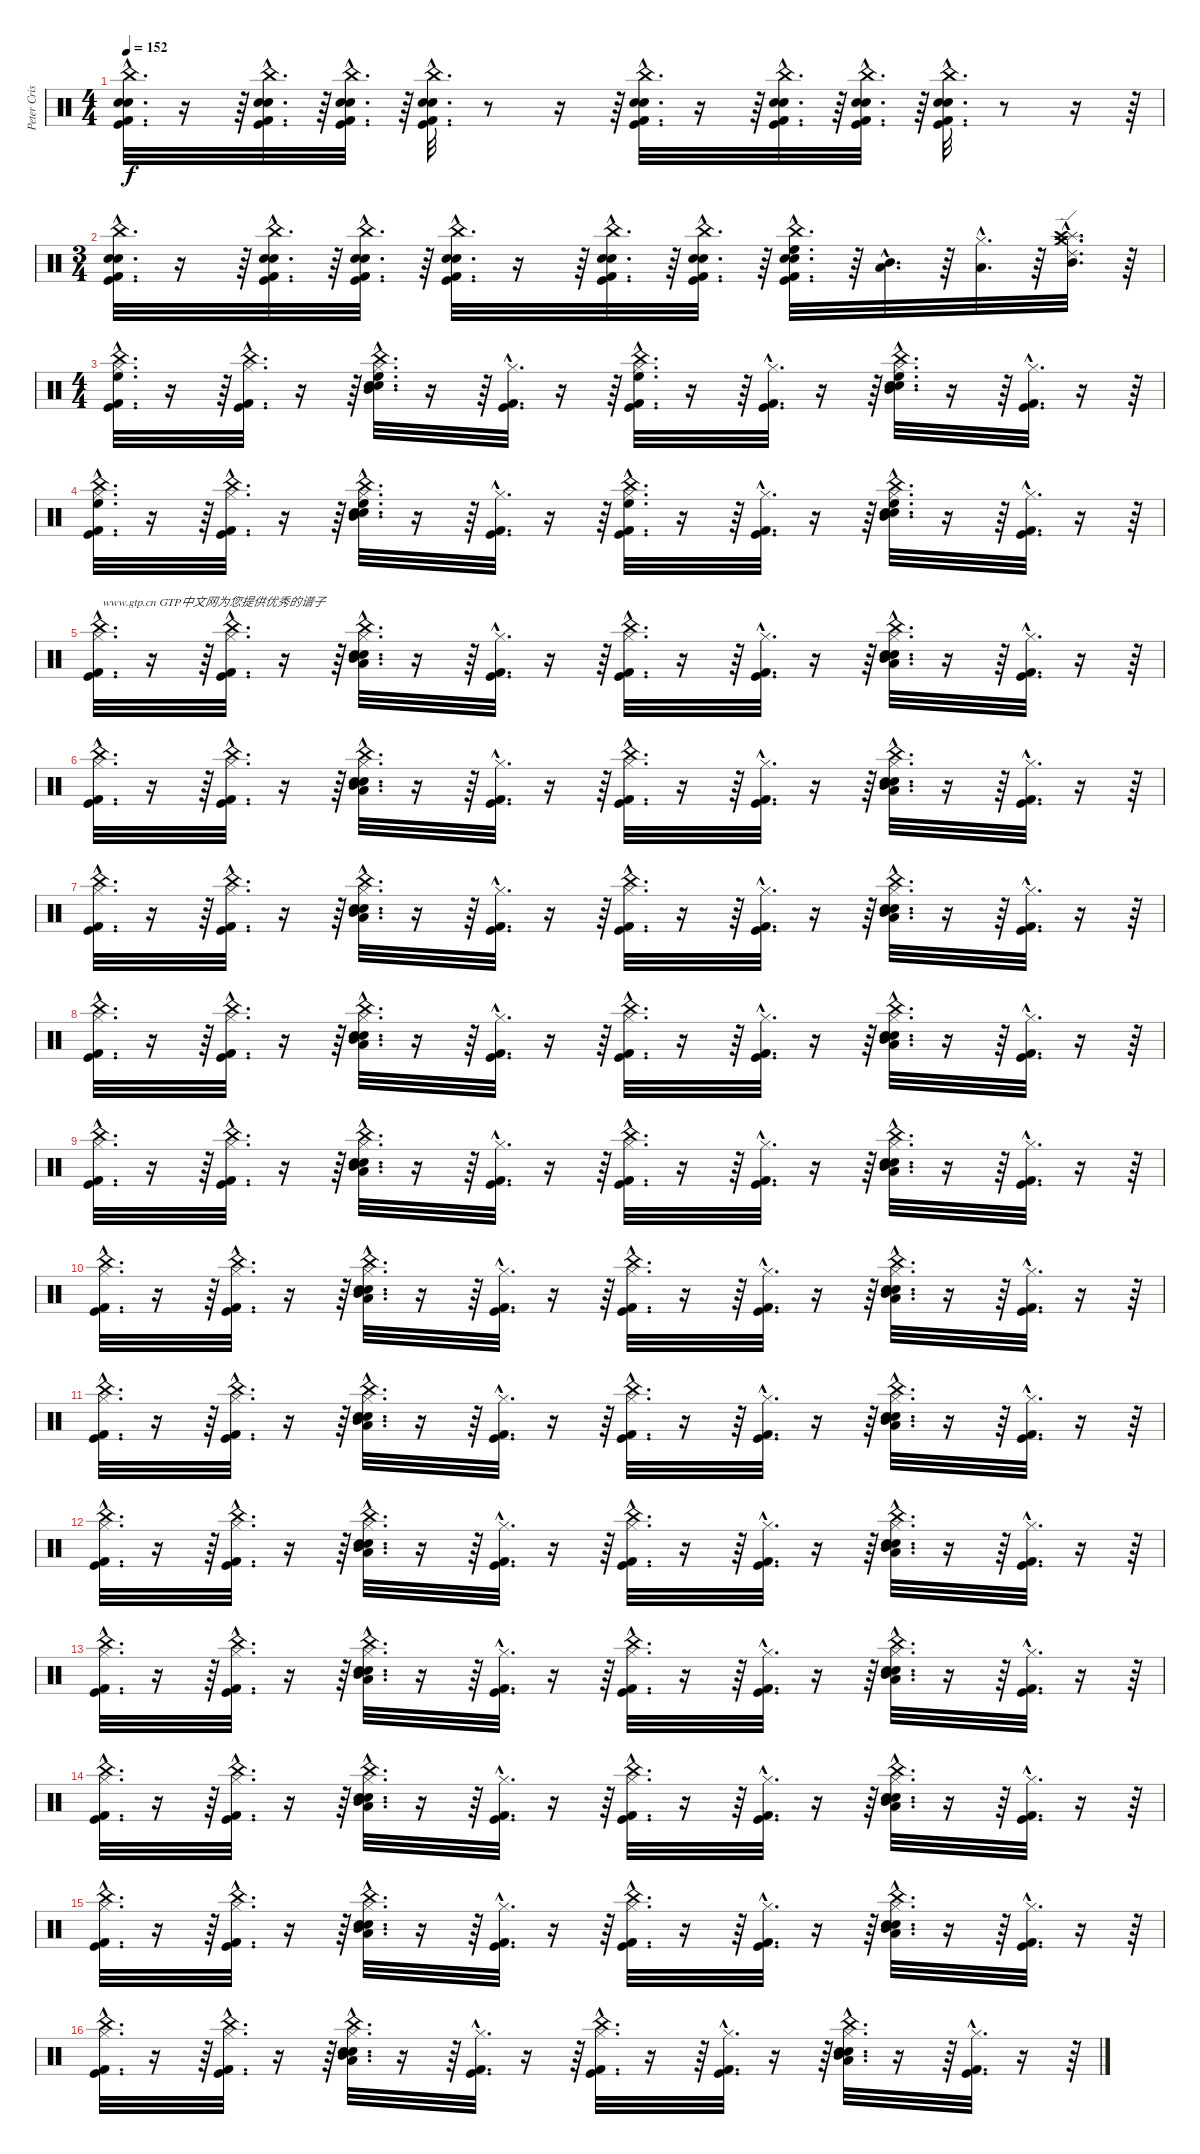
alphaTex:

\track ("Peter Criss" "Peter Cris") {instrument percussion}
\staff {score}
\articulation defaults
\ts (4 4)
\tempo 152
\clef neutral
\ks c
("Electric Snare (hit)"{hac} "Snare (hit) 2"{hac} "Kick (hit) 2"{hac} "Kick (hit)"{hac} "China (hit)"{hac}).32{d dy f} r.16 r.64 ("Electric Snare (hit)"{hac} "Snare (hit) 2"{hac} "Kick (hit) 2"{hac} "Kick (hit)"{hac} "China (hit)"{hac}).32{d} r.64 ("Electric Snare (hit)"{hac} "Snare (hit) 2"{hac} "Kick (hit) 2"{hac} "Kick (hit)"{hac} "China (hit)"{hac}).32{d} r.64 ("Electric Snare (hit)"{hac} "Snare (hit) 2"{hac} "Kick (hit) 2"{hac} "Kick (hit)"{hac} "China (hit)"{hac}).32{d} r.8 r.16 r.64 ("Electric Snare (hit)"{hac} "Snare (hit) 2"{hac} "Kick (hit) 2"{hac} "Kick (hit)"{hac} "China (hit)"{hac}).32{d} r.16 r.64 ("Electric Snare (hit)"{hac} "Snare (hit) 2"{hac} "Kick (hit) 2"{hac} "Kick (hit)"{hac} "China (hit)"{hac}).32{d} r.64 ("Electric Snare (hit)"{hac} "Snare (hit) 2"{hac} "Kick (hit) 2"{hac} "Kick (hit)"{hac} "China (hit)"{hac}).32{d} r.64 ("Electric Snare (hit)"{hac} "Snare (hit) 2"{hac} "Kick (hit) 2"{hac} "Kick (hit)"{hac} "China (hit)"{hac}).32{d} r.8 r.16 r.64 |
\ts (3 4)
("Electric Snare (hit)"{hac} "Snare (hit) 2"{hac} "Kick (hit) 2"{hac} "Kick (hit)"{hac} "China (hit)"{hac}).32{d} r.16 r.64 ("Electric Snare (hit)"{hac} "Snare (hit) 2"{hac} "Kick (hit) 2"{hac} "Kick (hit)"{hac} "China (hit)"{hac}).32{d} r.64 ("Electric Snare (hit)"{hac} "Snare (hit) 2"{hac} "Kick (hit) 2"{hac} "Kick (hit)"{hac} "China (hit)"{hac}).32{d} r.64 ("Electric Snare (hit)"{hac} "Snare (hit) 2"{hac} "Kick (hit) 2"{hac} "Kick (hit)"{hac} "China (hit)"{hac}).32{d} r.16 r.64 ("Electric Snare (hit)"{hac} "Snare (hit) 2"{hac} "Kick (hit) 2"{hac} "Kick (hit)"{hac} "China (hit)"{hac}).32{d} r.64 ("Electric Snare (hit)"{hac} "Snare (hit) 2"{hac} "Kick (hit) 2"{hac} "Kick (hit)"{hac} "China (hit)"{hac}).32{d} r.64 ("Electric Snare (hit)"{hac} "Snare (hit) 2"{hac} "Kick (hit) 2"{hac} "Kick (hit)"{hac} "China (hit)"{hac} "High Floor Tom (hit)"{hac}).32{d} r.64 ("Mid Tom (hit)"{hac} "Low Tom (hit)"{hac}).32{d} r.64 ("Low Tom (hit)"{hac} "Hi-Hat (closed)"{hac}).32{d} r.64 ("Hi-Hat (closed)"{hac} "Mid Tom (hit)"{hac} "Ride (edge) 2"{hac} "Crash medium (hit)"{hac} "Splash (hit)"{hac} "Crash high (hit)"{hac}).32{d} r.64 |
\ts (4 4)
("China (hit)"{hac} "Kick (hit) 2"{hac} "Kick (hit)"{hac} "Hi-Hat (closed)"{hac} "High Floor Tom (hit)"{hac}).32{d} r.16 r.64 ("Kick (hit)"{hac} "Kick (hit) 2"{hac} "China (hit)"{hac} "Hi-Hat (closed)"{hac}).32{d} r.16 r.64 ("China (hit)"{hac} "Electric Snare (hit)"{hac} "Snare (hit) 2"{hac} "Hi-Hat (closed)"{hac} "Mid Tom (hit)"{hac} "High Floor Tom (hit)"{hac}).32{d} r.16 r.64 ("Kick (hit) 2"{hac} "Kick (hit)"{hac} "Hi-Hat (closed)"{hac}).32{d} r.16 r.64 ("China (hit)"{hac} "Kick (hit)"{hac} "Kick (hit) 2"{hac} "Hi-Hat (closed)"{hac} "High Floor Tom (hit)"{hac}).32{d} r.16 r.64 ("Kick (hit) 2"{hac} "Kick (hit)"{hac} "Hi-Hat (closed)"{hac}).32{d} r.16 r.64 ("China (hit)"{hac} "Electric Snare (hit)"{hac} "Snare (hit) 2"{hac} "Hi-Hat (closed)"{hac} "Mid Tom (hit)"{hac} "High Floor Tom (hit)"{hac}).32{d} r.16 r.64 ("Kick (hit) 2"{hac} "Kick (hit)"{hac} "Hi-Hat (closed)"{hac}).32{d} r.16 r.64 |
("China (hit)"{hac} "Kick (hit) 2"{hac} "Kick (hit)"{hac} "Hi-Hat (closed)"{hac} "High Floor Tom (hit)"{hac}).32{d} r.16 r.64 ("Kick (hit)"{hac} "Kick (hit) 2"{hac} "China (hit)"{hac} "Hi-Hat (closed)"{hac}).32{d} r.16 r.64 ("China (hit)"{hac} "Electric Snare (hit)"{hac} "Snare (hit) 2"{hac} "Hi-Hat (closed)"{hac} "Mid Tom (hit)"{hac} "High Floor Tom (hit)"{hac}).32{d} r.16 r.64 ("Kick (hit) 2"{hac} "Kick (hit)"{hac} "Hi-Hat (closed)"{hac}).32{d} r.16 r.64 ("China (hit)"{hac} "Kick (hit)"{hac} "Kick (hit) 2"{hac} "Hi-Hat (closed)"{hac} "High Floor Tom (hit)"{hac}).32{d} r.16 r.64 ("Kick (hit) 2"{hac} "Kick (hit)"{hac} "Hi-Hat (closed)"{hac}).32{d} r.16 r.64 ("China (hit)"{hac} "Electric Snare (hit)"{hac} "Snare (hit) 2"{hac} "Hi-Hat (closed)"{hac} "Mid Tom (hit)"{hac} "High Floor Tom (hit)"{hac}).32{d} r.16 r.64 ("Kick (hit) 2"{hac} "Kick (hit)"{hac} "Hi-Hat (closed)"{hac}).32{d} r.16 r.64 |
("China (hit)"{hac} "Kick (hit) 2"{hac} "Kick (hit)"{hac} "Hi-Hat (closed)"{hac}).32{d txt "www.gtp.cn GTP中文网为您提供优秀的谱子"} r.16 r.64 ("Kick (hit)"{hac} "Kick (hit) 2"{hac} "China (hit)"{hac} "Hi-Hat (closed)"{hac}).32{d} r.16 r.64 ("China (hit)"{hac} "Electric Snare (hit)"{hac} "Snare (hit) 2"{hac} "Hi-Hat (closed)"{hac} "Mid Tom (hit)"{hac} "Low Tom (hit)"{hac}).32{d} r.16 r.64 ("Kick (hit) 2"{hac} "Kick (hit)"{hac} "Hi-Hat (closed)"{hac}).32{d} r.16 r.64 ("China (hit)"{hac} "Kick (hit)"{hac} "Kick (hit) 2"{hac} "Hi-Hat (closed)"{hac}).32{d} r.16 r.64 ("Kick (hit) 2"{hac} "Kick (hit)"{hac} "Hi-Hat (closed)"{hac}).32{d} r.16 r.64 ("China (hit)"{hac} "Electric Snare (hit)"{hac} "Snare (hit) 2"{hac} "Hi-Hat (closed)"{hac} "Mid Tom (hit)"{hac} "Low Tom (hit)"{hac}).32{d} r.16 r.64 ("Kick (hit) 2"{hac} "Kick (hit)"{hac} "Hi-Hat (closed)"{hac}).32{d} r.16 r.64 |
("China (hit)"{hac} "Kick (hit) 2"{hac} "Kick (hit)"{hac} "Hi-Hat (closed)"{hac}).32{d} r.16 r.64 ("Kick (hit)"{hac} "Kick (hit) 2"{hac} "China (hit)"{hac} "Hi-Hat (closed)"{hac}).32{d} r.16 r.64 ("China (hit)"{hac} "Electric Snare (hit)"{hac} "Snare (hit) 2"{hac} "Hi-Hat (closed)"{hac} "Mid Tom (hit)"{hac} "Low Tom (hit)"{hac}).32{d} r.16 r.64 ("Kick (hit) 2"{hac} "Kick (hit)"{hac} "Hi-Hat (closed)"{hac}).32{d} r.16 r.64 ("China (hit)"{hac} "Kick (hit)"{hac} "Kick (hit) 2"{hac} "Hi-Hat (closed)"{hac}).32{d} r.16 r.64 ("Kick (hit) 2"{hac} "Kick (hit)"{hac} "Hi-Hat (closed)"{hac}).32{d} r.16 r.64 ("China (hit)"{hac} "Electric Snare (hit)"{hac} "Snare (hit) 2"{hac} "Hi-Hat (closed)"{hac} "Mid Tom (hit)"{hac} "Low Tom (hit)"{hac}).32{d} r.16 r.64 ("Kick (hit) 2"{hac} "Kick (hit)"{hac} "Hi-Hat (closed)"{hac}).32{d} r.16 r.64 |
("China (hit)"{hac} "Kick (hit) 2"{hac} "Kick (hit)"{hac} "Hi-Hat (closed)"{hac}).32{d} r.16 r.64 ("Kick (hit)"{hac} "Kick (hit) 2"{hac} "China (hit)"{hac} "Hi-Hat (closed)"{hac}).32{d} r.16 r.64 ("China (hit)"{hac} "Electric Snare (hit)"{hac} "Snare (hit) 2"{hac} "Hi-Hat (closed)"{hac} "Mid Tom (hit)"{hac} "Low Tom (hit)"{hac}).32{d} r.16 r.64 ("Kick (hit) 2"{hac} "Kick (hit)"{hac} "Hi-Hat (closed)"{hac}).32{d} r.16 r.64 ("China (hit)"{hac} "Kick (hit)"{hac} "Kick (hit) 2"{hac} "Hi-Hat (closed)"{hac}).32{d} r.16 r.64 ("Kick (hit) 2"{hac} "Kick (hit)"{hac} "Hi-Hat (closed)"{hac}).32{d} r.16 r.64 ("China (hit)"{hac} "Electric Snare (hit)"{hac} "Snare (hit) 2"{hac} "Hi-Hat (closed)"{hac} "Mid Tom (hit)"{hac} "Low Tom (hit)"{hac}).32{d} r.16 r.64 ("Kick (hit) 2"{hac} "Kick (hit)"{hac} "Hi-Hat (closed)"{hac}).32{d} r.16 r.64 |
("China (hit)"{hac} "Kick (hit) 2"{hac} "Kick (hit)"{hac} "Hi-Hat (closed)"{hac}).32{d} r.16 r.64 ("Kick (hit)"{hac} "Kick (hit) 2"{hac} "China (hit)"{hac} "Hi-Hat (closed)"{hac}).32{d} r.16 r.64 ("China (hit)"{hac} "Electric Snare (hit)"{hac} "Snare (hit) 2"{hac} "Hi-Hat (closed)"{hac} "Mid Tom (hit)"{hac} "Low Tom (hit)"{hac}).32{d} r.16 r.64 ("Kick (hit) 2"{hac} "Kick (hit)"{hac} "Hi-Hat (closed)"{hac}).32{d} r.16 r.64 ("China (hit)"{hac} "Kick (hit)"{hac} "Kick (hit) 2"{hac} "Hi-Hat (closed)"{hac}).32{d} r.16 r.64 ("Kick (hit) 2"{hac} "Kick (hit)"{hac} "Hi-Hat (closed)"{hac}).32{d} r.16 r.64 ("China (hit)"{hac} "Electric Snare (hit)"{hac} "Snare (hit) 2"{hac} "Hi-Hat (closed)"{hac} "Mid Tom (hit)"{hac} "Low Tom (hit)"{hac}).32{d} r.16 r.64 ("Kick (hit) 2"{hac} "Kick (hit)"{hac} "Hi-Hat (closed)"{hac}).32{d} r.16 r.64 |
("China (hit)"{hac} "Kick (hit) 2"{hac} "Kick (hit)"{hac} "Hi-Hat (closed)"{hac}).32{d} r.16 r.64 ("Kick (hit)"{hac} "Kick (hit) 2"{hac} "China (hit)"{hac} "Hi-Hat (closed)"{hac}).32{d} r.16 r.64 ("China (hit)"{hac} "Electric Snare (hit)"{hac} "Snare (hit) 2"{hac} "Hi-Hat (closed)"{hac} "Mid Tom (hit)"{hac} "Low Tom (hit)"{hac}).32{d} r.16 r.64 ("Kick (hit) 2"{hac} "Kick (hit)"{hac} "Hi-Hat (closed)"{hac}).32{d} r.16 r.64 ("China (hit)"{hac} "Kick (hit)"{hac} "Kick (hit) 2"{hac} "Hi-Hat (closed)"{hac}).32{d} r.16 r.64 ("Kick (hit) 2"{hac} "Kick (hit)"{hac} "Hi-Hat (closed)"{hac}).32{d} r.16 r.64 ("China (hit)"{hac} "Electric Snare (hit)"{hac} "Snare (hit) 2"{hac} "Hi-Hat (closed)"{hac} "Mid Tom (hit)"{hac} "Low Tom (hit)"{hac}).32{d} r.16 r.64 ("Kick (hit) 2"{hac} "Kick (hit)"{hac} "Hi-Hat (closed)"{hac}).32{d} r.16 r.64 |
("China (hit)"{hac} "Kick (hit) 2"{hac} "Kick (hit)"{hac} "Hi-Hat (closed)"{hac}).32{d} r.16 r.64 ("Kick (hit)"{hac} "Kick (hit) 2"{hac} "China (hit)"{hac} "Hi-Hat (closed)"{hac}).32{d} r.16 r.64 ("China (hit)"{hac} "Electric Snare (hit)"{hac} "Snare (hit) 2"{hac} "Hi-Hat (closed)"{hac} "Mid Tom (hit)"{hac} "Low Tom (hit)"{hac}).32{d} r.16 r.64 ("Kick (hit) 2"{hac} "Kick (hit)"{hac} "Hi-Hat (closed)"{hac}).32{d} r.16 r.64 ("China (hit)"{hac} "Kick (hit)"{hac} "Kick (hit) 2"{hac} "Hi-Hat (closed)"{hac}).32{d} r.16 r.64 ("Kick (hit) 2"{hac} "Kick (hit)"{hac} "Hi-Hat (closed)"{hac}).32{d} r.16 r.64 ("China (hit)"{hac} "Electric Snare (hit)"{hac} "Snare (hit) 2"{hac} "Hi-Hat (closed)"{hac} "Mid Tom (hit)"{hac} "Low Tom (hit)"{hac}).32{d} r.16 r.64 ("Kick (hit) 2"{hac} "Kick (hit)"{hac} "Hi-Hat (closed)"{hac}).32{d} r.16 r.64 |
("China (hit)"{hac} "Kick (hit) 2"{hac} "Kick (hit)"{hac} "Hi-Hat (closed)"{hac}).32{d} r.16 r.64 ("Kick (hit) 2"{hac} "China (hit)"{hac} "Hi-Hat (closed)"{hac} "Kick (hit)"{hac}).32{d} r.16 r.64 ("China (hit)"{hac} "Electric Snare (hit)"{hac} "Snare (hit) 2"{hac} "Hi-Hat (closed)"{hac} "Mid Tom (hit)"{hac} "Low Tom (hit)"{hac}).32{d} r.16 r.64 ("Kick (hit) 2"{hac} "Kick (hit)"{hac} "Hi-Hat (closed)"{hac}).32{d} r.16 r.64 ("China (hit)"{hac} "Kick (hit)"{hac} "Kick (hit) 2"{hac} "Hi-Hat (closed)"{hac}).32{d} r.16 r.64 ("Kick (hit) 2"{hac} "Kick (hit)"{hac} "Hi-Hat (closed)"{hac}).32{d} r.16 r.64 ("China (hit)"{hac} "Electric Snare (hit)"{hac} "Snare (hit) 2"{hac} "Hi-Hat (closed)"{hac} "Mid Tom (hit)"{hac} "Low Tom (hit)"{hac}).32{d} r.16 r.64 ("Kick (hit) 2"{hac} "Kick (hit)"{hac} "Hi-Hat (closed)"{hac}).32{d} r.16 r.64 |
("China (hit)"{hac} "Kick (hit) 2"{hac} "Kick (hit)"{hac} "Hi-Hat (closed)"{hac}).32{d} r.16 r.64 ("Kick (hit)"{hac} "Kick (hit) 2"{hac} "China (hit)"{hac} "Hi-Hat (closed)"{hac}).32{d} r.16 r.64 ("China (hit)"{hac} "Electric Snare (hit)"{hac} "Snare (hit) 2"{hac} "Hi-Hat (closed)"{hac} "Mid Tom (hit)"{hac} "Low Tom (hit)"{hac}).32{d} r.16 r.64 ("Kick (hit) 2"{hac} "Kick (hit)"{hac} "Hi-Hat (closed)"{hac}).32{d} r.16 r.64 ("China (hit)"{hac} "Kick (hit)"{hac} "Kick (hit) 2"{hac} "Hi-Hat (closed)"{hac}).32{d} r.16 r.64 ("Kick (hit) 2"{hac} "Kick (hit)"{hac} "Hi-Hat (closed)"{hac}).32{d} r.16 r.64 ("China (hit)"{hac} "Electric Snare (hit)"{hac} "Snare (hit) 2"{hac} "Hi-Hat (closed)"{hac} "Mid Tom (hit)"{hac} "Low Tom (hit)"{hac}).32{d} r.16 r.64 ("Kick (hit) 2"{hac} "Kick (hit)"{hac} "Hi-Hat (closed)"{hac}).32{d} r.16 r.64 |
("China (hit)"{hac} "Kick (hit) 2"{hac} "Kick (hit)"{hac} "Hi-Hat (closed)"{hac}).32{d} r.16 r.64 ("Kick (hit)"{hac} "Kick (hit) 2"{hac} "China (hit)"{hac} "Hi-Hat (closed)"{hac}).32{d} r.16 r.64 ("China (hit)"{hac} "Electric Snare (hit)"{hac} "Snare (hit) 2"{hac} "Hi-Hat (closed)"{hac} "Mid Tom (hit)"{hac} "Low Tom (hit)"{hac}).32{d} r.16 r.64 ("Kick (hit) 2"{hac} "Kick (hit)"{hac} "Hi-Hat (closed)"{hac}).32{d} r.16 r.64 ("China (hit)"{hac} "Kick (hit)"{hac} "Kick (hit) 2"{hac} "Hi-Hat (closed)"{hac}).32{d} r.16 r.64 ("Kick (hit) 2"{hac} "Kick (hit)"{hac} "Hi-Hat (closed)"{hac}).32{d} r.16 r.64 ("China (hit)"{hac} "Electric Snare (hit)"{hac} "Snare (hit) 2"{hac} "Hi-Hat (closed)"{hac} "Mid Tom (hit)"{hac} "Low Tom (hit)"{hac}).32{d} r.16 r.64 ("Kick (hit) 2"{hac} "Kick (hit)"{hac} "Hi-Hat (closed)"{hac}).32{d} r.16 r.64 |
("China (hit)"{hac} "Kick (hit) 2"{hac} "Kick (hit)"{hac} "Hi-Hat (closed)"{hac}).32{d} r.16 r.64 ("Kick (hit)"{hac} "Kick (hit) 2"{hac} "China (hit)"{hac} "Hi-Hat (closed)"{hac}).32{d} r.16 r.64 ("China (hit)"{hac} "Electric Snare (hit)"{hac} "Snare (hit) 2"{hac} "Hi-Hat (closed)"{hac} "Mid Tom (hit)"{hac} "Low Tom (hit)"{hac}).32{d} r.16 r.64 ("Kick (hit) 2"{hac} "Kick (hit)"{hac} "Hi-Hat (closed)"{hac}).32{d} r.16 r.64 ("China (hit)"{hac} "Kick (hit)"{hac} "Kick (hit) 2"{hac} "Hi-Hat (closed)"{hac}).32{d} r.16 r.64 ("Kick (hit) 2"{hac} "Kick (hit)"{hac} "Hi-Hat (closed)"{hac}).32{d} r.16 r.64 ("China (hit)"{hac} "Electric Snare (hit)"{hac} "Snare (hit) 2"{hac} "Hi-Hat (closed)"{hac} "Mid Tom (hit)"{hac} "Low Tom (hit)"{hac}).32{d} r.16 r.64 ("Kick (hit) 2"{hac} "Kick (hit)"{hac} "Hi-Hat (closed)"{hac}).32{d} r.16 r.64 |
("China (hit)"{hac} "Kick (hit) 2"{hac} "Kick (hit)"{hac} "Hi-Hat (closed)"{hac}).32{d} r.16 r.64 ("Kick (hit)"{hac} "Kick (hit) 2"{hac} "China (hit)"{hac} "Hi-Hat (closed)"{hac}).32{d} r.16 r.64 ("China (hit)"{hac} "Electric Snare (hit)"{hac} "Snare (hit) 2"{hac} "Hi-Hat (closed)"{hac} "Mid Tom (hit)"{hac} "Low Tom (hit)"{hac}).32{d} r.16 r.64 ("Kick (hit) 2"{hac} "Kick (hit)"{hac} "Hi-Hat (closed)"{hac}).32{d} r.16 r.64 ("China (hit)"{hac} "Kick (hit)"{hac} "Kick (hit) 2"{hac} "Hi-Hat (closed)"{hac}).32{d} r.16 r.64 ("Kick (hit) 2"{hac} "Kick (hit)"{hac} "Hi-Hat (closed)"{hac}).32{d} r.16 r.64 ("China (hit)"{hac} "Electric Snare (hit)"{hac} "Snare (hit) 2"{hac} "Hi-Hat (closed)"{hac} "Mid Tom (hit)"{hac} "Low Tom (hit)"{hac}).32{d} r.16 r.64 ("Kick (hit) 2"{hac} "Kick (hit)"{hac} "Hi-Hat (closed)"{hac}).32{d} r.16 r.64 |
("China (hit)"{hac} "Kick (hit) 2"{hac} "Kick (hit)"{hac} "Hi-Hat (closed)"{hac}).32{d} r.16 r.64 ("Kick (hit)"{hac} "Kick (hit) 2"{hac} "China (hit)"{hac} "Hi-Hat (closed)"{hac}).32{d} r.16 r.64 ("China (hit)"{hac} "Electric Snare (hit)"{hac} "Snare (hit) 2"{hac} "Hi-Hat (closed)"{hac} "Mid Tom (hit)"{hac} "Low Tom (hit)"{hac}).32{d} r.16 r.64 ("Kick (hit) 2"{hac} "Kick (hit)"{hac} "Hi-Hat (closed)"{hac}).32{d} r.16 r.64 ("China (hit)"{hac} "Kick (hit)"{hac} "Kick (hit) 2"{hac} "Hi-Hat (closed)"{hac}).32{d} r.16 r.64 ("Kick (hit) 2"{hac} "Kick (hit)"{hac} "Hi-Hat (closed)"{hac}).32{d} r.16 r.64 ("China (hit)"{hac} "Electric Snare (hit)"{hac} "Snare (hit) 2"{hac} "Hi-Hat (closed)"{hac} "Mid Tom (hit)"{hac} "Low Tom (hit)"{hac}).32{d} r.16 r.64 ("Kick (hit) 2"{hac} "Kick (hit)"{hac} "Hi-Hat (closed)"{hac}).32{d} r.16 r.64
